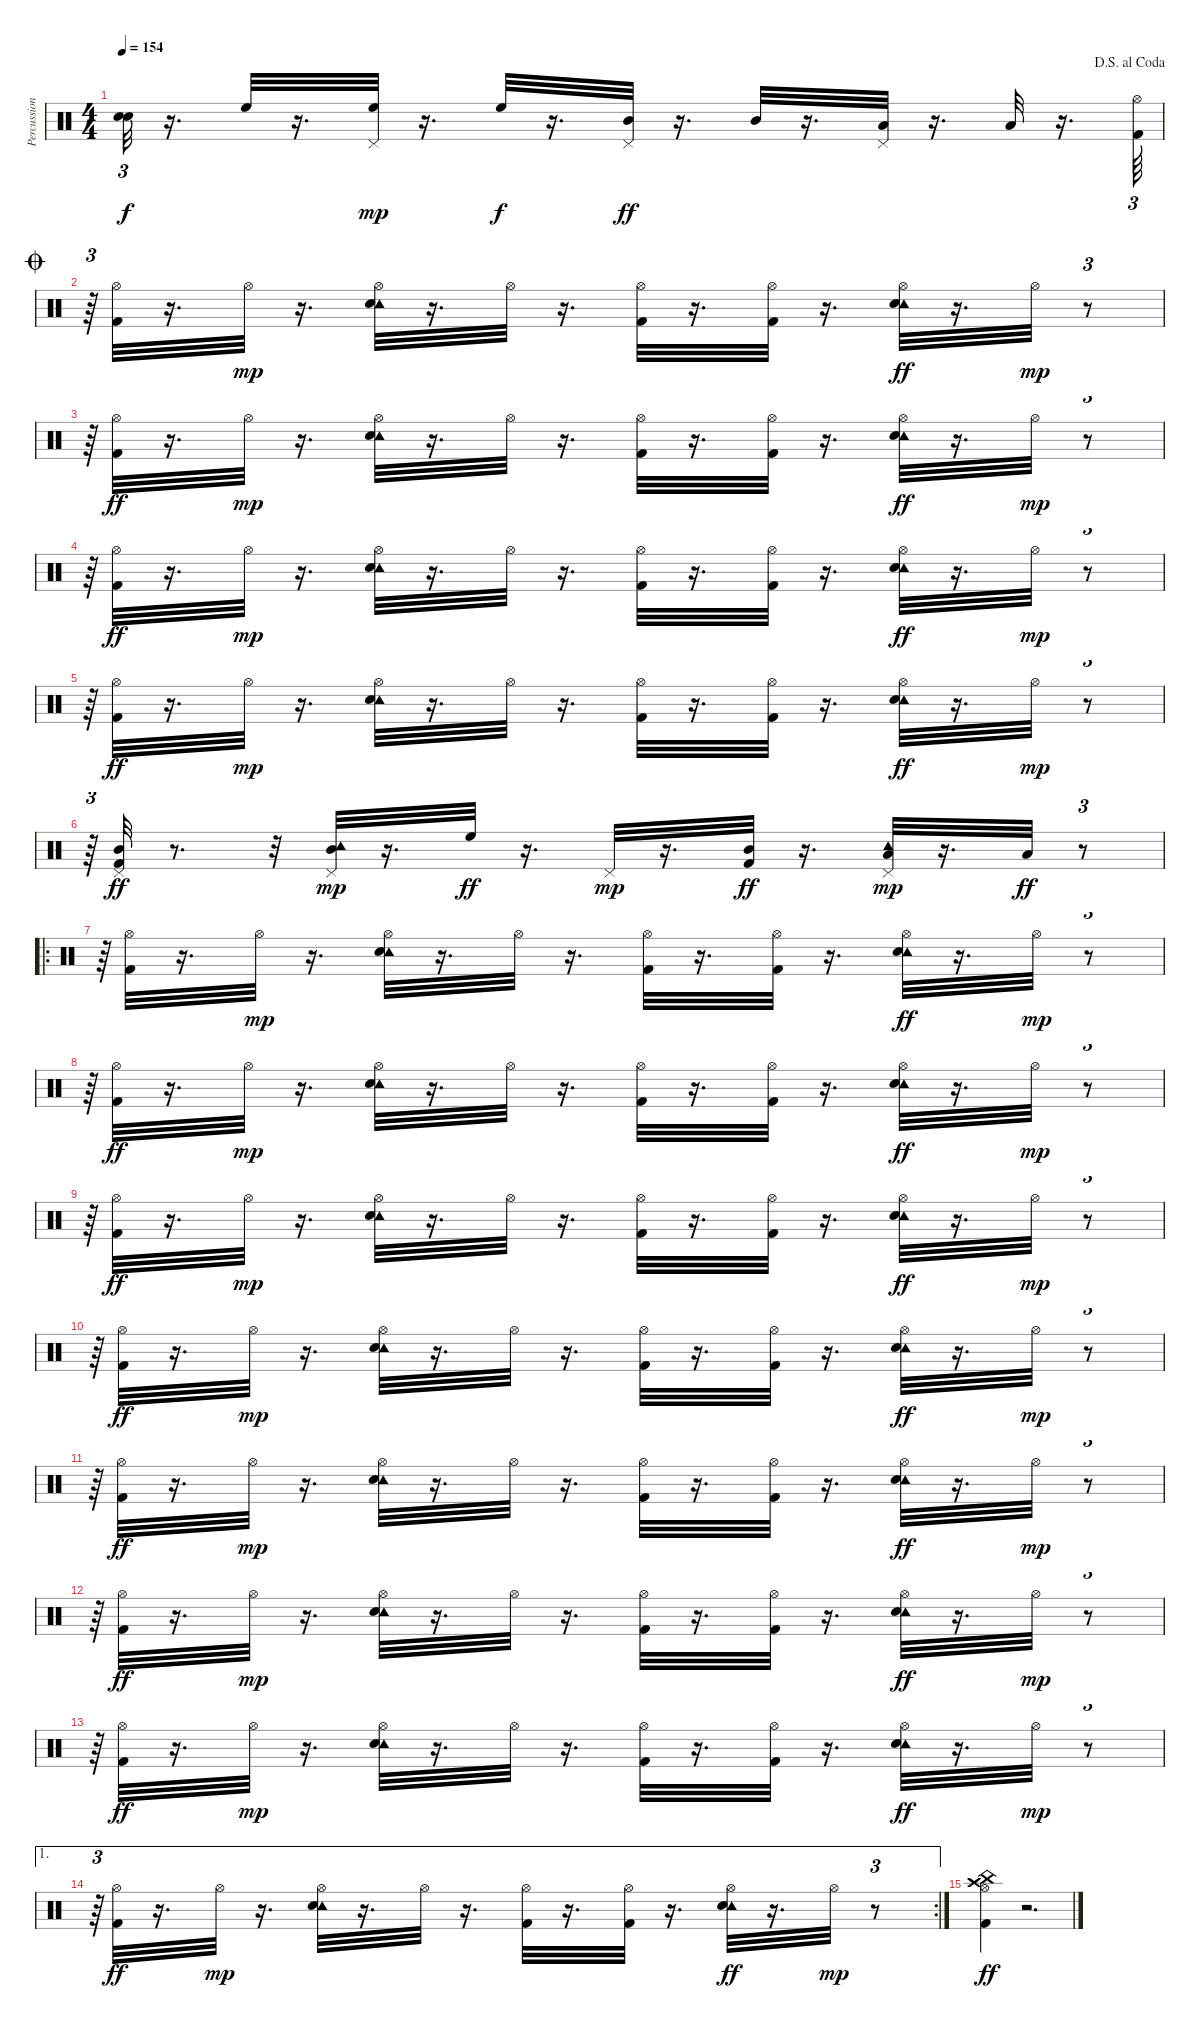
\track ("Percussions" "Percussion") {instrument percussion}
\staff {score}
\articulation defaults
\ts (4 4)
\jump dalsegnoalcoda
\tempo 154
\clef neutral
\ks c
("Snare (hit)"{t} "Snare (hit)"{t}).32{tu (3 2) dy f} r.16{d} "High Floor Tom (hit)".32 r.16{d} ("Pedal Hi-Hat (hit)" "High Floor Tom (hit)").32{dy mp} r.16{d} "High Floor Tom (hit)".32{dy f} r.16{d} ("Pedal Hi-Hat (hit)" "Mid Tom (hit)").32{dy ff} r.16{d} "Mid Tom (hit)".32 r.16{d} ("Pedal Hi-Hat (hit)" "Low Tom (hit)").32 r.16{d} "Low Tom (hit)".32 r.16{d} ("Hi-Hat (open)" "Kick (hit) 2").64{tu (3 2)} |
\jump coda
r.64{tu (3 2)} ("Hi-Hat (open)" "Kick (hit) 2").32 r.16{d} "Hi-Hat (open)".32{dy mp} r.16{d} ("Hi-Hat (open)" "Tambourine (hit)" "Snare (hit) 2").32 r.16{d} "Hi-Hat (open)".32 r.16{d} ("Hi-Hat (open)" "Kick (hit) 2").32 r.16{d} ("Hi-Hat (open)" "Kick (hit) 2").32 r.16{d} ("Hi-Hat (open)" "Tambourine (hit)" "Snare (hit) 2").32{dy ff} r.16{d} "Hi-Hat (open)".32{dy mp} r.8{tu (3 2)} |
r.64{tu (3 2)} ("Hi-Hat (open)" "Kick (hit) 2").32{dy ff} r.16{d} "Hi-Hat (open)".32{dy mp} r.16{d} ("Hi-Hat (open)" "Tambourine (hit)" "Snare (hit) 2").32 r.16{d} "Hi-Hat (open)".32 r.16{d} ("Hi-Hat (open)" "Kick (hit) 2").32 r.16{d} ("Hi-Hat (open)" "Kick (hit) 2").32 r.16{d} ("Hi-Hat (open)" "Tambourine (hit)" "Snare (hit) 2").32{dy ff} r.16{d} "Hi-Hat (open)".32{dy mp} r.8{tu (3 2)} |
r.64{tu (3 2)} ("Hi-Hat (open)" "Kick (hit) 2").32{dy ff} r.16{d} "Hi-Hat (open)".32{dy mp} r.16{d} ("Hi-Hat (open)" "Tambourine (hit)" "Snare (hit) 2").32 r.16{d} "Hi-Hat (open)".32 r.16{d} ("Hi-Hat (open)" "Kick (hit) 2").32 r.16{d} ("Hi-Hat (open)" "Kick (hit) 2").32 r.16{d} ("Hi-Hat (open)" "Tambourine (hit)" "Snare (hit) 2").32{dy ff} r.16{d} "Hi-Hat (open)".32{dy mp} r.8{tu (3 2)} |
r.64{tu (3 2)} ("Hi-Hat (open)" "Kick (hit) 2").32{dy ff} r.16{d} "Hi-Hat (open)".32{dy mp} r.16{d} ("Hi-Hat (open)" "Tambourine (hit)" "Snare (hit) 2").32 r.16{d} "Hi-Hat (open)".32 r.16{d} ("Hi-Hat (open)" "Kick (hit) 2").32 r.16{d} ("Hi-Hat (open)" "Kick (hit) 2").32 r.16{d} ("Hi-Hat (open)" "Tambourine (hit)" "Snare (hit) 2").32{dy ff} r.16{d} "Hi-Hat (open)".32{dy mp} r.8{tu (3 2)} |
r.64{tu (3 2)} ("Mid Tom (hit)" "Pedal Hi-Hat (hit)" "Kick (hit) 2").32{dy ff} r.8{d} r.32 ("Mid Tom (hit)" "Tambourine (hit)" "Pedal Hi-Hat (hit)").32{dy mp} r.16{d} "High Floor Tom (hit)".32{dy ff} r.16{d} "Pedal Hi-Hat (hit)".32{dy mp} r.16{d} ("Mid Tom (hit)" "Kick (hit) 2").32{dy ff} r.16{d} ("Low Tom (hit)" "Tambourine (hit)" "Pedal Hi-Hat (hit)").32{dy mp} r.16{d} "Low Tom (hit)".32{dy ff} r.8{tu (3 2)} |
\ro
r.64{tu (3 2)} ("Hi-Hat (open)" "Kick (hit) 2").32 r.16{d} "Hi-Hat (open)".32{dy mp} r.16{d} ("Hi-Hat (open)" "Tambourine (hit)" "Snare (hit) 2").32 r.16{d} "Hi-Hat (open)".32 r.16{d} ("Hi-Hat (open)" "Kick (hit) 2").32 r.16{d} ("Hi-Hat (open)" "Kick (hit) 2").32 r.16{d} ("Hi-Hat (open)" "Tambourine (hit)" "Snare (hit) 2").32{dy ff} r.16{d} "Hi-Hat (open)".32{dy mp} r.8{tu (3 2)} |
r.64{tu (3 2)} ("Hi-Hat (open)" "Kick (hit) 2").32{dy ff} r.16{d} "Hi-Hat (open)".32{dy mp} r.16{d} ("Hi-Hat (open)" "Tambourine (hit)" "Snare (hit) 2").32 r.16{d} "Hi-Hat (open)".32 r.16{d} ("Hi-Hat (open)" "Kick (hit) 2").32 r.16{d} ("Hi-Hat (open)" "Kick (hit) 2").32 r.16{d} ("Hi-Hat (open)" "Tambourine (hit)" "Snare (hit) 2").32{dy ff} r.16{d} "Hi-Hat (open)".32{dy mp} r.8{tu (3 2)} |
r.64{tu (3 2)} ("Hi-Hat (open)" "Kick (hit) 2").32{dy ff} r.16{d} "Hi-Hat (open)".32{dy mp} r.16{d} ("Hi-Hat (open)" "Tambourine (hit)" "Snare (hit) 2").32 r.16{d} "Hi-Hat (open)".32 r.16{d} ("Hi-Hat (open)" "Kick (hit) 2").32 r.16{d} ("Hi-Hat (open)" "Kick (hit) 2").32 r.16{d} ("Hi-Hat (open)" "Tambourine (hit)" "Snare (hit) 2").32{dy ff} r.16{d} "Hi-Hat (open)".32{dy mp} r.8{tu (3 2)} |
r.64{tu (3 2)} ("Hi-Hat (open)" "Kick (hit) 2").32{dy ff} r.16{d} "Hi-Hat (open)".32{dy mp} r.16{d} ("Hi-Hat (open)" "Tambourine (hit)" "Snare (hit) 2").32 r.16{d} "Hi-Hat (open)".32 r.16{d} ("Hi-Hat (open)" "Kick (hit) 2").32 r.16{d} ("Hi-Hat (open)" "Kick (hit) 2").32 r.16{d} ("Hi-Hat (open)" "Tambourine (hit)" "Snare (hit) 2").32{dy ff} r.16{d} "Hi-Hat (open)".32{dy mp} r.8{tu (3 2)} |
r.64{tu (3 2)} ("Hi-Hat (open)" "Kick (hit) 2").32{dy ff} r.16{d} "Hi-Hat (open)".32{dy mp} r.16{d} ("Hi-Hat (open)" "Tambourine (hit)" "Snare (hit) 2").32 r.16{d} "Hi-Hat (open)".32 r.16{d} ("Hi-Hat (open)" "Kick (hit) 2").32 r.16{d} ("Hi-Hat (open)" "Kick (hit) 2").32 r.16{d} ("Hi-Hat (open)" "Tambourine (hit)" "Snare (hit) 2").32{dy ff} r.16{d} "Hi-Hat (open)".32{dy mp} r.8{tu (3 2)} |
r.64{tu (3 2)} ("Hi-Hat (open)" "Kick (hit) 2").32{dy ff} r.16{d} "Hi-Hat (open)".32{dy mp} r.16{d} ("Hi-Hat (open)" "Tambourine (hit)" "Snare (hit) 2").32 r.16{d} "Hi-Hat (open)".32 r.16{d} ("Hi-Hat (open)" "Kick (hit) 2").32 r.16{d} ("Hi-Hat (open)" "Kick (hit) 2").32 r.16{d} ("Hi-Hat (open)" "Tambourine (hit)" "Snare (hit) 2").32{dy ff} r.16{d} "Hi-Hat (open)".32{dy mp} r.8{tu (3 2)} |
r.64{tu (3 2)} ("Hi-Hat (open)" "Kick (hit) 2").32{dy ff} r.16{d} "Hi-Hat (open)".32{dy mp} r.16{d} ("Hi-Hat (open)" "Tambourine (hit)" "Snare (hit) 2").32 r.16{d} "Hi-Hat (open)".32 r.16{d} ("Hi-Hat (open)" "Kick (hit) 2").32 r.16{d} ("Hi-Hat (open)" "Kick (hit) 2").32 r.16{d} ("Hi-Hat (open)" "Tambourine (hit)" "Snare (hit) 2").32{dy ff} r.16{d} "Hi-Hat (open)".32{dy mp} r.8{tu (3 2)} |
\ae 1
\rc 2
r.64{tu (3 2)} ("Hi-Hat (open)" "Kick (hit) 2").32{dy ff} r.16{d} "Hi-Hat (open)".32{dy mp} r.16{d} ("Hi-Hat (open)" "Tambourine (hit)" "Snare (hit) 2").32 r.16{d} "Hi-Hat (open)".32 r.16{d} ("Hi-Hat (open)" "Kick (hit) 2").32 r.16{d} ("Hi-Hat (open)" "Kick (hit) 2").32 r.16{d} ("Hi-Hat (open)" "Tambourine (hit)" "Snare (hit) 2").32{dy ff} r.16{d} "Hi-Hat (open)".32{dy mp} r.8{tu (3 2)} |
("Hi-Hat (open)" "Kick (hit) 2" "Crash high (hit)" "China (hit)").4{dy ff} r.2{d}
